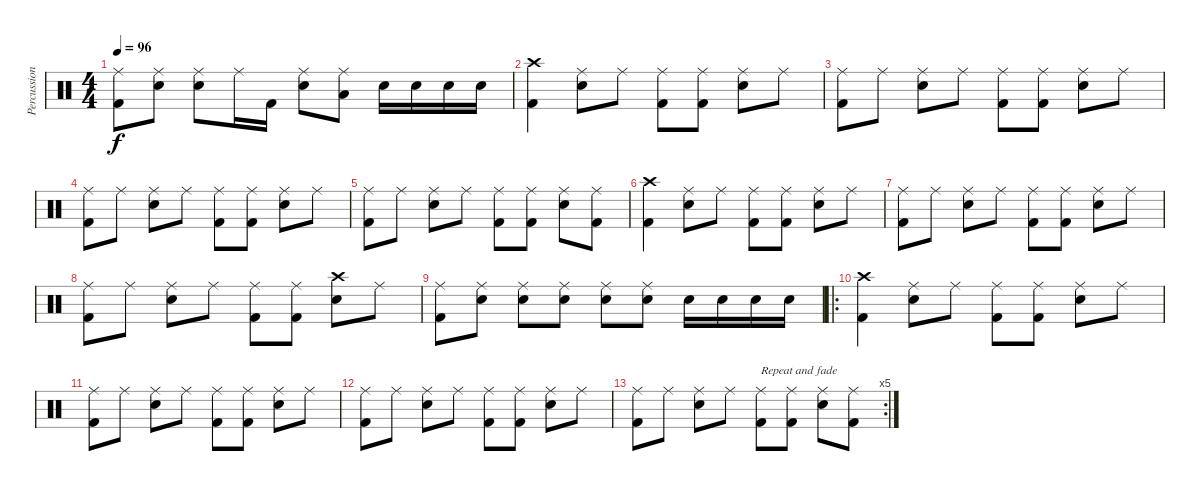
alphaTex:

\track ("Percussion" "Percussion") {instrument percussion}
\staff {score}
\articulation defaults
\ts (4 4)
\tempo 96
\clef neutral
\ks c
("Ride (middle)" "Kick (hit) 2").8{dy f} ("Ride (middle)" "Electric Snare (hit)").8 ("Ride (middle)" "Electric Snare (hit)").8 "Ride (middle)".16 "Kick (hit) 2".16 ("Ride (middle)" "Electric Snare (hit)").8 ("Ride (middle)" "Low Tom (hit)").8 "Electric Snare (hit)".16 "Electric Snare (hit)".16 "Electric Snare (hit)".16 "Electric Snare (hit)".16 |
("Crash high (hit)" "Kick (hit) 2").4 ("Ride (middle)" "Electric Snare (hit)").8 "Ride (middle)".8 ("Ride (middle)" "Kick (hit) 2").8 ("Ride (middle)" "Kick (hit) 2").8 ("Ride (middle)" "Electric Snare (hit)").8 "Ride (middle)".8 |
("Ride (middle)" "Kick (hit) 2").8 "Ride (middle)".8 ("Ride (middle)" "Electric Snare (hit)").8 "Ride (middle)".8 ("Ride (middle)" "Kick (hit) 2").8 ("Ride (middle)" "Kick (hit) 2").8 ("Ride (middle)" "Electric Snare (hit)").8 "Ride (middle)".8 |
("Ride (middle)" "Kick (hit) 2").8 "Ride (middle)".8 ("Ride (middle)" "Electric Snare (hit)").8 "Ride (middle)".8 ("Ride (middle)" "Kick (hit) 2").8 ("Ride (middle)" "Kick (hit) 2").8 ("Ride (middle)" "Electric Snare (hit)").8 "Ride (middle)".8 |
("Ride (middle)" "Kick (hit) 2").8 "Ride (middle)".8 ("Ride (middle)" "Electric Snare (hit)").8 "Ride (middle)".8 ("Ride (middle)" "Kick (hit) 2").8 ("Ride (middle)" "Kick (hit) 2").8 ("Ride (middle)" "Electric Snare (hit)").8 ("Ride (middle)" "Kick (hit) 2").8 |
("Crash high (hit)" "Kick (hit) 2").4 ("Ride (middle)" "Electric Snare (hit)").8 "Ride (middle)".8 ("Ride (middle)" "Kick (hit) 2").8 ("Ride (middle)" "Kick (hit) 2").8 ("Ride (middle)" "Electric Snare (hit)").8 "Ride (middle)".8 |
("Ride (middle)" "Kick (hit) 2").8 "Ride (middle)".8 ("Ride (middle)" "Electric Snare (hit)").8 "Ride (middle)".8 ("Ride (middle)" "Kick (hit) 2").8 ("Ride (middle)" "Kick (hit) 2").8 ("Ride (middle)" "Electric Snare (hit)").8 "Ride (middle)".8 |
("Ride (middle)" "Kick (hit) 2").8 "Ride (middle)".8 ("Ride (middle)" "Electric Snare (hit)").8 "Ride (middle)".8 ("Ride (middle)" "Kick (hit) 2").8 ("Ride (middle)" "Kick (hit) 2").8 ("Crash high (hit)" "Electric Snare (hit)").8 "Ride (middle)".8 |
("Ride (middle)" "Kick (hit) 2").8 ("Ride (middle)" "Electric Snare (hit)").8 ("Ride (middle)" "Electric Snare (hit)").8 ("Ride (middle)" "Electric Snare (hit)").8 ("Ride (middle)" "Electric Snare (hit)").8 ("Ride (middle)" "Electric Snare (hit)").8 "Electric Snare (hit)".16 "Electric Snare (hit)".16 "Electric Snare (hit)".16 "Electric Snare (hit)".16 |
\ro
("Crash high (hit)" "Kick (hit) 2").4 ("Ride (middle)" "Electric Snare (hit)").8 "Ride (middle)".8 ("Ride (middle)" "Kick (hit) 2").8 ("Ride (middle)" "Kick (hit) 2").8 ("Ride (middle)" "Electric Snare (hit)").8 "Ride (middle)".8 |
("Ride (middle)" "Kick (hit) 2").8 "Ride (middle)".8 ("Ride (middle)" "Electric Snare (hit)").8 "Ride (middle)".8 ("Ride (middle)" "Kick (hit) 2").8 ("Ride (middle)" "Kick (hit) 2").8 ("Ride (middle)" "Electric Snare (hit)").8 "Ride (middle)".8 |
("Ride (middle)" "Kick (hit) 2").8 "Ride (middle)".8 ("Ride (middle)" "Electric Snare (hit)").8 "Ride (middle)".8 ("Ride (middle)" "Kick (hit) 2").8 ("Ride (middle)" "Kick (hit) 2").8 ("Ride (middle)" "Electric Snare (hit)").8 "Ride (middle)".8 |
\rc 5
("Ride (middle)" "Kick (hit) 2").8 "Ride (middle)".8 ("Ride (middle)" "Electric Snare (hit)").8 "Ride (middle)".8 ("Ride (middle)" "Kick (hit) 2").8{txt "Repeat and fade"} ("Ride (middle)" "Kick (hit) 2").8 ("Ride (middle)" "Electric Snare (hit)").8 ("Ride (middle)" "Kick (hit) 2").8
